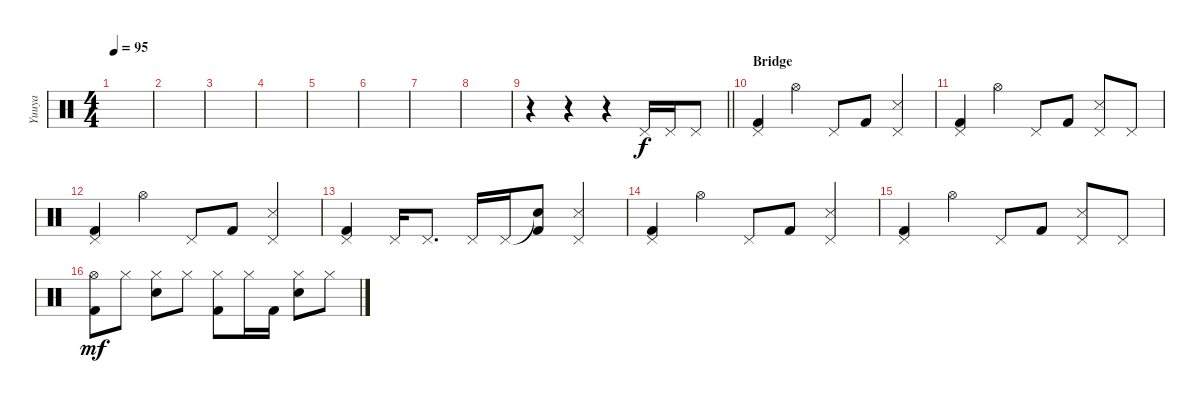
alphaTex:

\track ("Yuuya" "Yuuya") {instrument percussion}
\staff {score}
\articulation defaults
\ts (4 4)
\tempo 95
\clef neutral
\ks c
|
|
|
|
|
|
|
|
\barLineRight lightlight
r.4 r.4 r.4 "Pedal Hi-Hat (hit)".16 "Pedal Hi-Hat (hit)".16 "Pedal Hi-Hat (hit)".8 |
\section ("" "Bridge")
("Pedal Hi-Hat (hit)" "Kick (hit) 2").4 "Hi-Hat (open)".4 "Pedal Hi-Hat (hit)".8 "Kick (hit) 2".8 ("Pedal Hi-Hat (hit)" "Snare (side stick) 3").4 |
("Pedal Hi-Hat (hit)" "Kick (hit) 2").4 "Hi-Hat (open)".4 "Pedal Hi-Hat (hit)".8 "Kick (hit) 2".8 ("Pedal Hi-Hat (hit)" "Snare (side stick) 3").8 "Pedal Hi-Hat (hit)".8 |
("Pedal Hi-Hat (hit)" "Kick (hit) 2").4 "Hi-Hat (open)".4 "Pedal Hi-Hat (hit)".8 "Kick (hit) 2".8 ("Pedal Hi-Hat (hit)" "Snare (side stick) 3").4 |
("Pedal Hi-Hat (hit)" "Kick (hit) 2").4 "Pedal Hi-Hat (hit)".16 "Pedal Hi-Hat (hit)".8{d} "Pedal Hi-Hat (hit)".16 "Pedal Hi-Hat (hit)".16 ("Snare (hit)"{t} "Kick (hit) 2").8 ("Pedal Hi-Hat (hit)" "Snare (side stick) 3").4 |
("Pedal Hi-Hat (hit)" "Kick (hit) 2").4 "Hi-Hat (open)".4 "Pedal Hi-Hat (hit)".8 "Kick (hit) 2".8 ("Pedal Hi-Hat (hit)" "Snare (side stick) 3").4 |
("Pedal Hi-Hat (hit)" "Kick (hit) 2").4 "Hi-Hat (open)".4 "Pedal Hi-Hat (hit)".8 "Kick (hit) 2".8 ("Pedal Hi-Hat (hit)" "Snare (side stick) 3").8 "Pedal Hi-Hat (hit)".8 |
("Hi-Hat (open)" "Kick (hit) 2").8{dy mf} "Hi-Hat (closed)".8 ("Hi-Hat (closed)" "Snare (hit) 2").8 "Hi-Hat (closed)".8 ("Hi-Hat (closed)" "Kick (hit) 2").8 "Hi-Hat (closed)".16 "Kick (hit) 2".16 ("Hi-Hat (closed)" "Snare (hit) 2").8 "Hi-Hat (closed)".8
